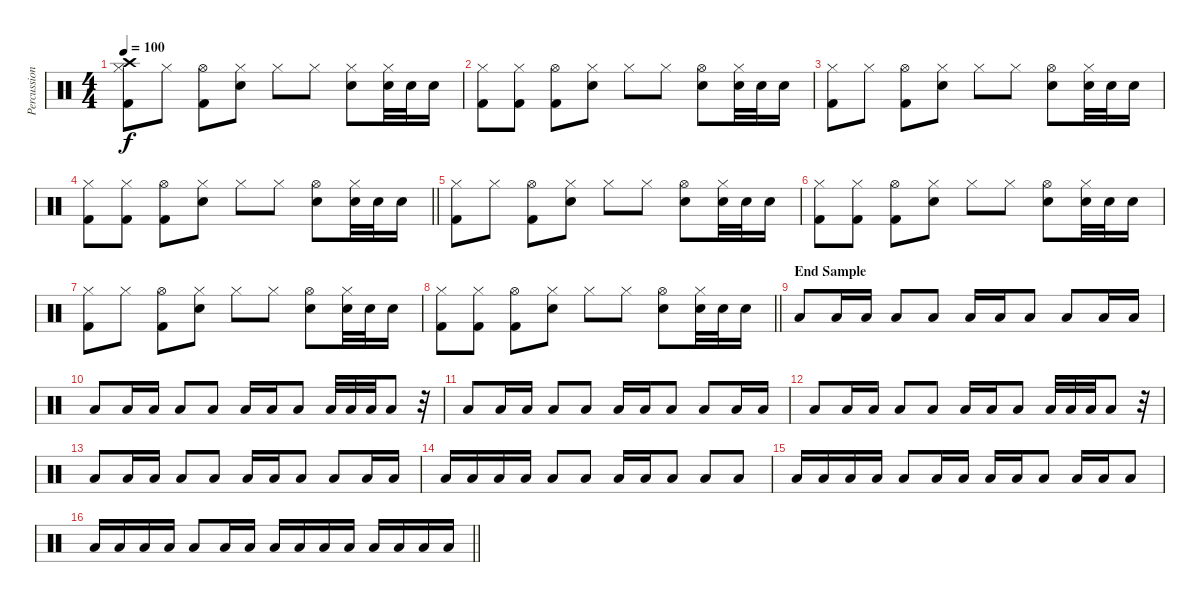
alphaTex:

\track ("Percussion" "Percussion") {instrument percussion}
\staff {score}
\articulation defaults
\ts (4 4)
\tempo 100
\clef neutral
\ks c
("Crash high (hit)" "Hi-Hat (closed)" "Kick (hit) 2").8{dy f} "Hi-Hat (closed)".8 ("Hi-Hat (open)" "Kick (hit) 2").8 ("Electric Snare (hit)" "Hi-Hat (closed)").8 "Hi-Hat (closed)".8 "Hi-Hat (closed)".8 ("Electric Snare (hit)" "Hi-Hat (closed)").8 ("Electric Snare (hit)" "Hi-Hat (closed)").32 "Electric Snare (hit)".32 "Electric Snare (hit)".16 |
("Hi-Hat (closed)" "Kick (hit) 2").8 ("Hi-Hat (closed)" "Kick (hit) 2").8 ("Hi-Hat (open)" "Kick (hit) 2").8 ("Electric Snare (hit)" "Hi-Hat (closed)").8 "Hi-Hat (closed)".8 "Hi-Hat (closed)".8 ("Electric Snare (hit)" "Hi-Hat (open)").8 ("Electric Snare (hit)" "Hi-Hat (closed)").32 "Electric Snare (hit)".32 "Electric Snare (hit)".16 |
("Hi-Hat (closed)" "Kick (hit) 2").8 "Hi-Hat (closed)".8 ("Hi-Hat (open)" "Kick (hit) 2").8 ("Electric Snare (hit)" "Hi-Hat (closed)").8 "Hi-Hat (closed)".8 "Hi-Hat (closed)".8 ("Electric Snare (hit)" "Hi-Hat (open)").8 ("Electric Snare (hit)" "Hi-Hat (closed)").32 "Electric Snare (hit)".32 "Electric Snare (hit)".16 |
\barLineRight lightlight
("Hi-Hat (closed)" "Kick (hit) 2").8 ("Hi-Hat (closed)" "Kick (hit) 2").8 ("Hi-Hat (open)" "Kick (hit) 2").8 ("Electric Snare (hit)" "Hi-Hat (closed)").8 "Hi-Hat (closed)".8 "Hi-Hat (closed)".8 ("Electric Snare (hit)" "Hi-Hat (open)").8 ("Electric Snare (hit)" "Hi-Hat (closed)").32 "Electric Snare (hit)".32 "Electric Snare (hit)".16 |
("Hi-Hat (closed)" "Kick (hit) 2").8 "Hi-Hat (closed)".8 ("Hi-Hat (open)" "Kick (hit) 2").8 ("Electric Snare (hit)" "Hi-Hat (closed)").8 "Hi-Hat (closed)".8 "Hi-Hat (closed)".8 ("Electric Snare (hit)" "Hi-Hat (open)").8 ("Electric Snare (hit)" "Hi-Hat (closed)").32 "Electric Snare (hit)".32 "Electric Snare (hit)".16 |
("Hi-Hat (closed)" "Kick (hit) 2").8 ("Hi-Hat (closed)" "Kick (hit) 2").8 ("Hi-Hat (open)" "Kick (hit) 2").8 ("Electric Snare (hit)" "Hi-Hat (closed)").8 "Hi-Hat (closed)".8 "Hi-Hat (closed)".8 ("Electric Snare (hit)" "Hi-Hat (open)").8 ("Electric Snare (hit)" "Hi-Hat (closed)").32 "Electric Snare (hit)".32 "Electric Snare (hit)".16 |
("Hi-Hat (closed)" "Kick (hit) 2").8 "Hi-Hat (closed)".8 ("Hi-Hat (open)" "Kick (hit) 2").8 ("Electric Snare (hit)" "Hi-Hat (closed)").8 "Hi-Hat (closed)".8 "Hi-Hat (closed)".8 ("Electric Snare (hit)" "Hi-Hat (open)").8 ("Electric Snare (hit)" "Hi-Hat (closed)").32 "Electric Snare (hit)".32 "Electric Snare (hit)".16 |
\barLineRight lightlight
("Hi-Hat (closed)" "Kick (hit) 2").8 ("Hi-Hat (closed)" "Kick (hit) 2").8 ("Hi-Hat (open)" "Kick (hit) 2").8 ("Electric Snare (hit)" "Hi-Hat (closed)").8 "Hi-Hat (closed)".8 "Hi-Hat (closed)".8 ("Electric Snare (hit)" "Hi-Hat (open)").8 ("Electric Snare (hit)" "Hi-Hat (closed)").32 "Electric Snare (hit)".32 "Electric Snare (hit)".16 |
\section ("" "End Sample")
"Low Floor Tom (hit)".8 "Low Floor Tom (hit)".16 "Low Floor Tom (hit)".16 "Low Floor Tom (hit)".8 "Low Floor Tom (hit)".8 "Low Floor Tom (hit)".16 "Low Floor Tom (hit)".16 "Low Floor Tom (hit)".8 "Low Floor Tom (hit)".8 "Low Floor Tom (hit)".16 "Low Floor Tom (hit)".16 |
"Low Floor Tom (hit)".8 "Low Floor Tom (hit)".16 "Low Floor Tom (hit)".16 "Low Floor Tom (hit)".8 "Low Floor Tom (hit)".8 "Low Floor Tom (hit)".16 "Low Floor Tom (hit)".16 "Low Floor Tom (hit)".8 "Low Floor Tom (hit)".32 "Low Floor Tom (hit)".32 "Low Floor Tom (hit)".32 "Low Floor Tom (hit)".8 r.32 |
"Low Floor Tom (hit)".8 "Low Floor Tom (hit)".16 "Low Floor Tom (hit)".16 "Low Floor Tom (hit)".8 "Low Floor Tom (hit)".8 "Low Floor Tom (hit)".16 "Low Floor Tom (hit)".16 "Low Floor Tom (hit)".8 "Low Floor Tom (hit)".8 "Low Floor Tom (hit)".16 "Low Floor Tom (hit)".16 |
"Low Floor Tom (hit)".8 "Low Floor Tom (hit)".16 "Low Floor Tom (hit)".16 "Low Floor Tom (hit)".8 "Low Floor Tom (hit)".8 "Low Floor Tom (hit)".16 "Low Floor Tom (hit)".16 "Low Floor Tom (hit)".8 "Low Floor Tom (hit)".32 "Low Floor Tom (hit)".32 "Low Floor Tom (hit)".32 "Low Floor Tom (hit)".8 r.32 |
"Low Floor Tom (hit)".8 "Low Floor Tom (hit)".16 "Low Floor Tom (hit)".16 "Low Floor Tom (hit)".8 "Low Floor Tom (hit)".8 "Low Floor Tom (hit)".16 "Low Floor Tom (hit)".16 "Low Floor Tom (hit)".8 "Low Floor Tom (hit)".8 "Low Floor Tom (hit)".16 "Low Floor Tom (hit)".16 |
"Low Floor Tom (hit)".16 "Low Floor Tom (hit)".16 "Low Floor Tom (hit)".16 "Low Floor Tom (hit)".16 "Low Floor Tom (hit)".8 "Low Floor Tom (hit)".8 "Low Floor Tom (hit)".16 "Low Floor Tom (hit)".16 "Low Floor Tom (hit)".8 "Low Floor Tom (hit)".8 "Low Floor Tom (hit)".8 |
"Low Floor Tom (hit)".16 "Low Floor Tom (hit)".16 "Low Floor Tom (hit)".16 "Low Floor Tom (hit)".16 "Low Floor Tom (hit)".8 "Low Floor Tom (hit)".16 "Low Floor Tom (hit)".16 "Low Floor Tom (hit)".16 "Low Floor Tom (hit)".16 "Low Floor Tom (hit)".8 "Low Floor Tom (hit)".16 "Low Floor Tom (hit)".16 "Low Floor Tom (hit)".8 |
\barLineRight lightlight "Low Floor Tom (hit)".16 "Low Floor Tom (hit)".16 "Low Floor Tom (hit)".16 "Low Floor Tom (hit)".16 "Low Floor Tom (hit)".8 "Low Floor Tom (hit)".16 "Low Floor Tom (hit)".16 "Low Floor Tom (hit)".16 "Low Floor Tom (hit)".16 "Low Floor Tom (hit)".16 "Low Floor Tom (hit)".16 "Low Floor Tom (hit)".16 "Low Floor Tom (hit)".16 "Low Floor Tom (hit)".16 "Low Floor Tom (hit)".16
